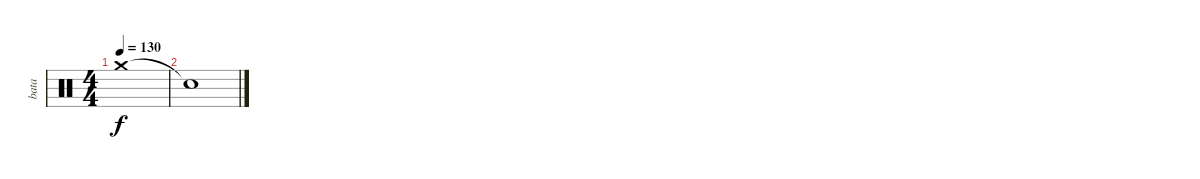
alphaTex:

\track ("bata" "bata") {instrument percussion}
\staff {score}
\articulation defaults
\ts (4 4)
\tempo 130
\clef neutral
\ks c "Crash medium (hit)".1{dy f}
|
"Snare (hit)"{t}.1
